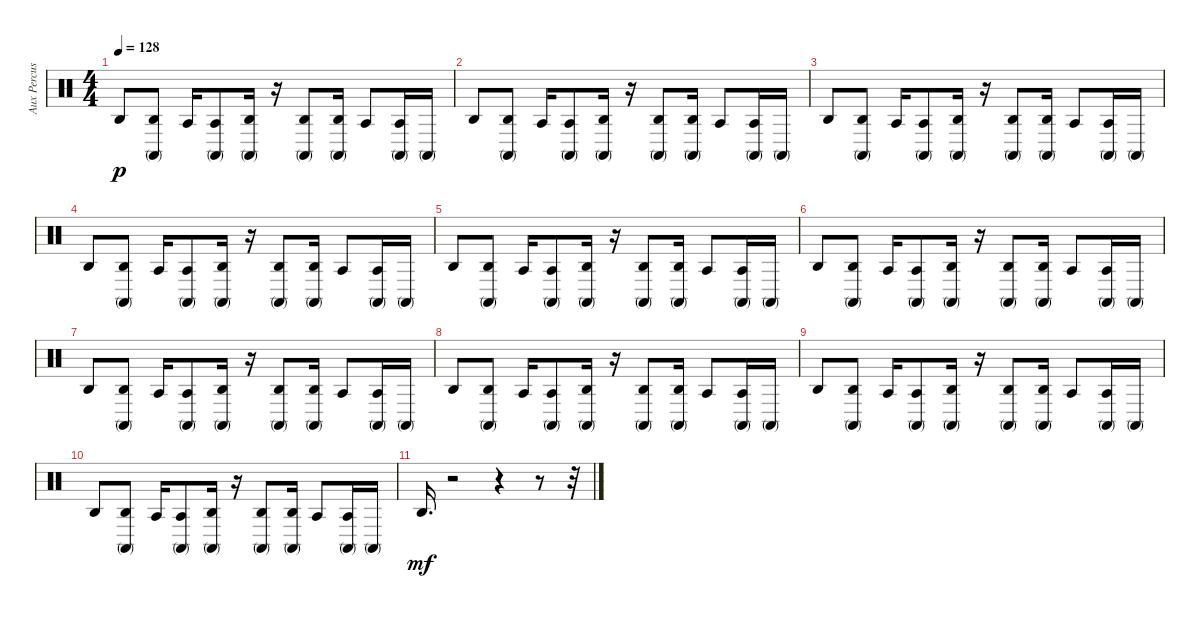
\track ("Aux Percussion" "Aux Percus") {instrument percussion}
\staff {score}
\articulation defaults
\ts (4 4)
\tempo 128
\clef neutral
\ks c "Agogo high (hit)".8{dy p}
("Agogo high (hit)" "Conga high (mute)").8 "Agogo tow (hit)".16 ("Agogo tow (hit)" "Conga high (mute)").8 ("Conga high (mute)" "Agogo high (hit)").16 r.16 ("Conga high (mute)" "Agogo high (hit)").8 ("Agogo high (hit)" "Conga high (mute)").16 "Agogo tow (hit)".8 ("Conga high (mute)" "Agogo tow (hit)").16 "Conga high (mute)".16 |
"Agogo high (hit)".8 ("Conga high (mute)" "Agogo high (hit)").8 "Agogo tow (hit)".16 ("Agogo tow (hit)" "Conga high (mute)").8 ("Agogo high (hit)" "Conga high (mute)").16 r.16 ("Agogo high (hit)" "Conga high (mute)").8 ("Conga high (mute)" "Agogo high (hit)").16 "Agogo tow (hit)".8 ("Agogo tow (hit)" "Conga high (mute)").16 "Conga high (mute)".16 |
"Agogo high (hit)".8 ("Conga high (mute)" "Agogo high (hit)").8 "Agogo tow (hit)".16 ("Conga high (mute)" "Agogo tow (hit)").8 ("Agogo high (hit)" "Conga high (mute)").16 r.16 ("Agogo high (hit)" "Conga high (mute)").8 ("Conga high (mute)" "Agogo high (hit)").16 "Agogo tow (hit)".8 ("Agogo tow (hit)" "Conga high (mute)").16 "Conga high (mute)".16 |
"Agogo high (hit)".8 ("Agogo high (hit)" "Conga high (mute)").8 "Agogo tow (hit)".16 ("Conga high (mute)" "Agogo tow (hit)").8 ("Conga high (mute)" "Agogo high (hit)").16 r.16 ("Conga high (mute)" "Agogo high (hit)").8 ("Agogo high (hit)" "Conga high (mute)").16 "Agogo tow (hit)".8 ("Conga high (mute)" "Agogo tow (hit)").16 "Conga high (mute)".16 |
"Agogo high (hit)".8 ("Agogo high (hit)" "Conga high (mute)").8 "Agogo tow (hit)".16 ("Agogo tow (hit)" "Conga high (mute)").8 ("Conga high (mute)" "Agogo high (hit)").16 r.16 ("Conga high (mute)" "Agogo high (hit)").8 ("Agogo high (hit)" "Conga high (mute)").16 "Agogo tow (hit)".8 ("Conga high (mute)" "Agogo tow (hit)").16 "Conga high (mute)".16 |
"Agogo high (hit)".8 ("Conga high (mute)" "Agogo high (hit)").8 "Agogo tow (hit)".16 ("Agogo tow (hit)" "Conga high (mute)").8 ("Agogo high (hit)" "Conga high (mute)").16 r.16 ("Agogo high (hit)" "Conga high (mute)").8 ("Conga high (mute)" "Agogo high (hit)").16 "Agogo tow (hit)".8 ("Agogo tow (hit)" "Conga high (mute)").16 "Conga high (mute)".16 |
"Agogo high (hit)".8 ("Conga high (mute)" "Agogo high (hit)").8 "Agogo tow (hit)".16 ("Conga high (mute)" "Agogo tow (hit)").8 ("Agogo high (hit)" "Conga high (mute)").16 r.16 ("Agogo high (hit)" "Conga high (mute)").8 ("Conga high (mute)" "Agogo high (hit)").16 "Agogo tow (hit)".8 ("Agogo tow (hit)" "Conga high (mute)").16 "Conga high (mute)".16 |
"Agogo high (hit)".8 ("Agogo high (hit)" "Conga high (mute)").8 "Agogo tow (hit)".16 ("Conga high (mute)" "Agogo tow (hit)").8 ("Conga high (mute)" "Agogo high (hit)").16 r.16 ("Conga high (mute)" "Agogo high (hit)").8 ("Agogo high (hit)" "Conga high (mute)").16 "Agogo tow (hit)".8 ("Conga high (mute)" "Agogo tow (hit)").16 "Conga high (mute)".16 |
"Agogo high (hit)".8 ("Conga high (mute)" "Agogo high (hit)").8 "Agogo tow (hit)".16 ("Agogo tow (hit)" "Conga high (mute)").8 ("Agogo high (hit)" "Conga high (mute)").16 r.16 ("Agogo high (hit)" "Conga high (mute)").8 ("Conga high (mute)" "Agogo high (hit)").16 "Agogo tow (hit)".8 ("Agogo tow (hit)" "Conga high (mute)").16 "Conga high (mute)".16 |
"Agogo high (hit)".8 ("Conga high (mute)" "Agogo high (hit)").8 "Agogo tow (hit)".16 ("Agogo tow (hit)" "Conga high (mute)").8 ("Agogo high (hit)" "Conga high (mute)").16 r.16 ("Agogo high (hit)" "Conga high (mute)").8 ("Conga high (mute)" "Agogo high (hit)").16 "Agogo tow (hit)".8 ("Agogo tow (hit)" "Conga high (mute)").16 "Conga high (mute)".16 |
"Agogo high (hit)".16{d dy mf} r.2 r.4 r.8 r.32
